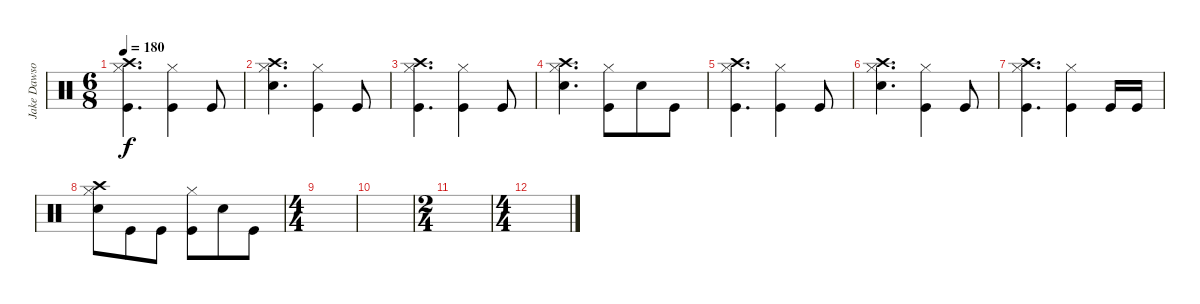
\track ("Jake Dawson" "Jake Dawso") {instrument percussion}
\staff {score}
\articulation defaults
\ts (6 8)
\tempo 180
\clef neutral
\ks c
("Crash high (hit)" "Hi-Hat (closed)" "Kick (hit)").4{d dy f} ("Hi-Hat (closed)" "Kick (hit)").4 "Kick (hit)".8 |
("Crash high (hit)" "Hi-Hat (closed)" "Snare (hit) 2").4{d} ("Hi-Hat (closed)" "Kick (hit)").4 "Kick (hit)".8 |
("Crash high (hit)" "Hi-Hat (closed)" "Kick (hit)").4{d} ("Hi-Hat (closed)" "Kick (hit)").4 "Kick (hit)".8 |
("Crash high (hit)" "Hi-Hat (closed)" "Snare (hit) 2").4{d} ("Hi-Hat (closed)" "Kick (hit)").8 "Snare (hit) 2".8 "Kick (hit)".8 |
("Crash high (hit)" "Hi-Hat (closed)" "Kick (hit)").4{d} ("Hi-Hat (closed)" "Kick (hit)").4 "Kick (hit)".8 |
("Crash high (hit)" "Hi-Hat (closed)" "Snare (hit) 2").4{d} ("Hi-Hat (closed)" "Kick (hit)").4 "Kick (hit)".8 |
("Crash high (hit)" "Hi-Hat (closed)" "Kick (hit)").4{d} ("Hi-Hat (closed)" "Kick (hit)").4 "Kick (hit)".16 "Kick (hit)".16 |
("Crash high (hit)" "Hi-Hat (closed)" "Snare (hit) 2").8 "Kick (hit)".8 "Kick (hit)".8 ("Hi-Hat (closed)" "Kick (hit)").8 "Snare (hit) 2".8 "Kick (hit)".8 |
\ts (4 4)
|
|
\ts (2 4)
|
\ts (4 4)
